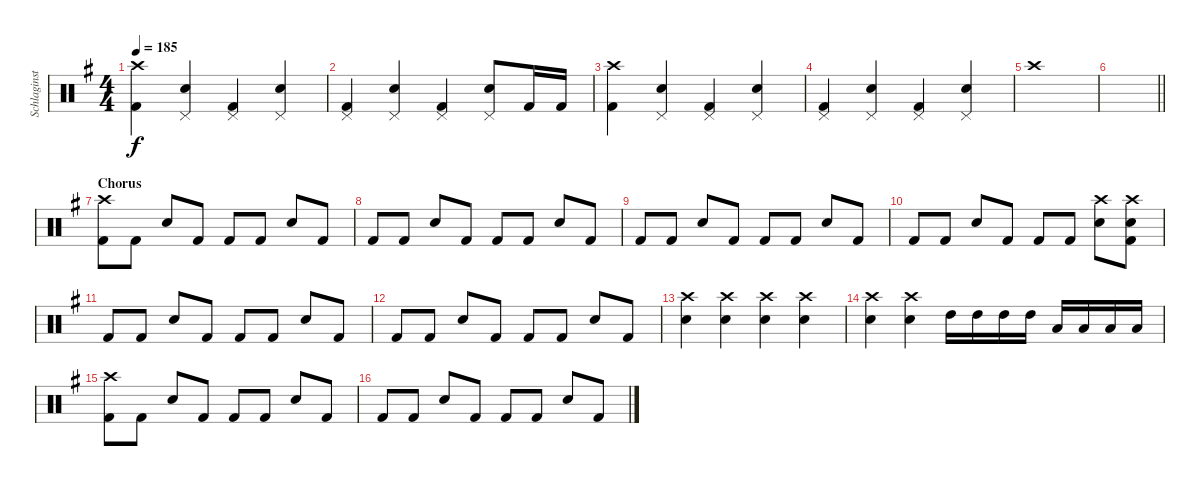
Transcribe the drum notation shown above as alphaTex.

\track ("Schlaginstrumente - Auswahl" "Schlaginst") {instrument percussion}
\staff {score}
\articulation defaults
\ts (4 4)
\tempo 185
\clef neutral
\ks eminor
("Kick (hit) 2" "Crash high (hit)").4{dy f} ("Snare (hit) 2" "Pedal Hi-Hat (hit)").4 ("Kick (hit) 2" "Pedal Hi-Hat (hit)").4 ("Snare (hit) 2" "Pedal Hi-Hat (hit)").4 |
("Kick (hit) 2" "Pedal Hi-Hat (hit)").4 ("Snare (hit) 2" "Pedal Hi-Hat (hit)").4 ("Kick (hit) 2" "Pedal Hi-Hat (hit)").4 ("Snare (hit) 2" "Pedal Hi-Hat (hit)").8 "Kick (hit) 2".16 "Kick (hit) 2".16 |
("Kick (hit) 2" "Crash high (hit)").4 ("Snare (hit) 2" "Pedal Hi-Hat (hit)").4 ("Kick (hit) 2" "Pedal Hi-Hat (hit)").4 ("Snare (hit) 2" "Pedal Hi-Hat (hit)").4 |
("Kick (hit) 2" "Pedal Hi-Hat (hit)").4 ("Snare (hit) 2" "Pedal Hi-Hat (hit)").4 ("Kick (hit) 2" "Pedal Hi-Hat (hit)").4 ("Snare (hit) 2" "Pedal Hi-Hat (hit)").4 |
"Crash high (hit)".1 |
\barLineRight lightlight
|
\section ("" "Chorus")
("Crash high (hit)" "Kick (hit) 2").8 "Kick (hit) 2".8 "Snare (hit) 2".8 "Kick (hit) 2".8 "Kick (hit) 2".8 "Kick (hit) 2".8 "Snare (hit) 2".8 "Kick (hit) 2".8 |
"Kick (hit) 2".8 "Kick (hit) 2".8 "Snare (hit) 2".8 "Kick (hit) 2".8 "Kick (hit) 2".8 "Kick (hit) 2".8 "Snare (hit) 2".8 "Kick (hit) 2".8 |
"Kick (hit) 2".8 "Kick (hit) 2".8 "Snare (hit) 2".8 "Kick (hit) 2".8 "Kick (hit) 2".8 "Kick (hit) 2".8 "Snare (hit) 2".8 "Kick (hit) 2".8 |
"Kick (hit) 2".8 "Kick (hit) 2".8 "Snare (hit) 2".8 "Kick (hit) 2".8 "Kick (hit) 2".8 "Kick (hit) 2".8 ("Crash high (hit)" "Snare (hit) 2").8 ("Crash high (hit)" "Snare (hit) 2" "Kick (hit) 2").8 |
"Kick (hit) 2".8 "Kick (hit) 2".8 "Snare (hit) 2".8 "Kick (hit) 2".8 "Kick (hit) 2".8 "Kick (hit) 2".8 "Snare (hit) 2".8 "Kick (hit) 2".8 |
"Kick (hit) 2".8 "Kick (hit) 2".8 "Snare (hit) 2".8 "Kick (hit) 2".8 "Kick (hit) 2".8 "Kick (hit) 2".8 "Snare (hit) 2".8 "Kick (hit) 2".8 |
("Crash high (hit)" "Snare (hit) 2").4 ("Crash high (hit)" "Snare (hit) 2").4 ("Crash high (hit)" "Snare (hit) 2").4 ("Crash high (hit)" "Snare (hit) 2").4 |
("Crash high (hit)" "Snare (hit) 2").4 ("Crash high (hit)" "Snare (hit) 2").4 "High Tom (hit)".16 "High Tom (hit)".16 "High Tom (hit)".16 "High Tom (hit)".16 "Low Tom (hit)".16 "Low Tom (hit)".16 "Low Tom (hit)".16 "Low Tom (hit)".16 |
("Crash high (hit)" "Kick (hit) 2").8 "Kick (hit) 2".8 "Snare (hit) 2".8 "Kick (hit) 2".8 "Kick (hit) 2".8 "Kick (hit) 2".8 "Snare (hit) 2".8 "Kick (hit) 2".8 |
"Kick (hit) 2".8 "Kick (hit) 2".8 "Snare (hit) 2".8 "Kick (hit) 2".8 "Kick (hit) 2".8 "Kick (hit) 2".8 "Snare (hit) 2".8 "Kick (hit) 2".8
